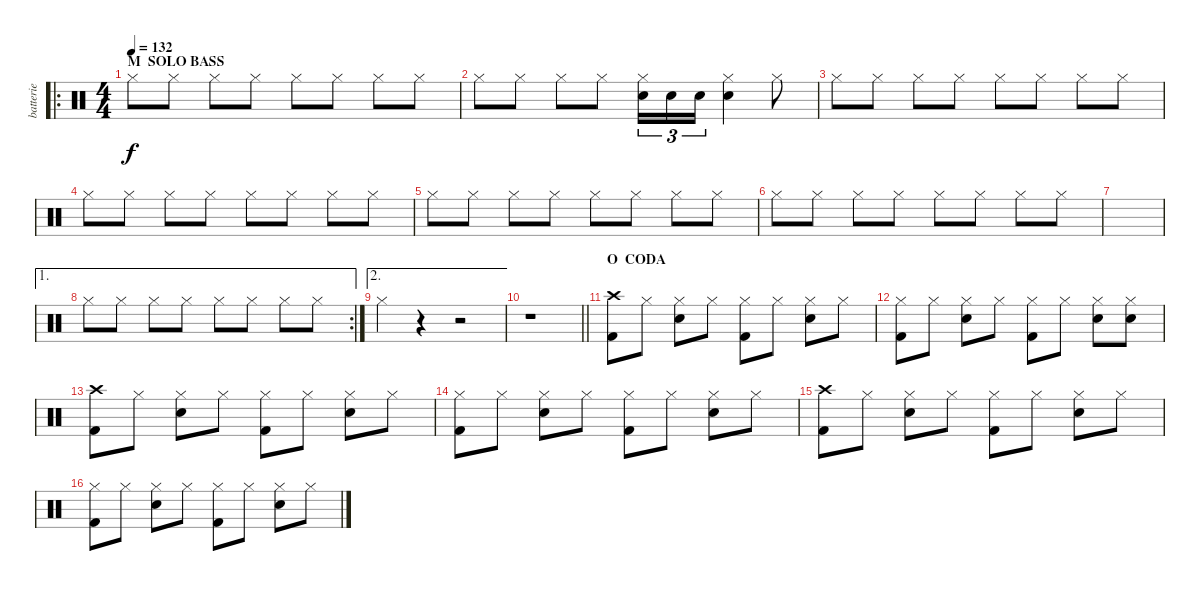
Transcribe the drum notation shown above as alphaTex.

\track ("batterie" "batterie") {instrument percussion}
\staff {score}
\articulation defaults
\ro
\ts (4 4)
\section ("" "M  SOLO BASS")
\tempo 132
\clef neutral
\ks c "Hi-Hat (closed)".8{dy f} "Hi-Hat (closed)".8 "Hi-Hat (closed)".8 "Hi-Hat (closed)".8 "Hi-Hat (closed)".8 "Hi-Hat (closed)".8 "Hi-Hat (closed)".8 "Hi-Hat (closed)".8
|
"Hi-Hat (closed)".8 "Hi-Hat (closed)".8 "Hi-Hat (closed)".8 "Hi-Hat (closed)".8 ("Hi-Hat (closed)" "Electric Snare (hit)").16{tu (3 2)} "Electric Snare (hit)".16{tu (3 2)} "Electric Snare (hit)".16{tu (3 2)} ("Hi-Hat (closed)" "Electric Snare (hit)").4 "Hi-Hat (closed)".8 |
"Hi-Hat (closed)".8 "Hi-Hat (closed)".8 "Hi-Hat (closed)".8 "Hi-Hat (closed)".8 "Hi-Hat (closed)".8 "Hi-Hat (closed)".8 "Hi-Hat (closed)".8 "Hi-Hat (closed)".8 |
"Hi-Hat (closed)".8 "Hi-Hat (closed)".8 "Hi-Hat (closed)".8 "Hi-Hat (closed)".8 "Hi-Hat (closed)".8 "Hi-Hat (closed)".8 "Hi-Hat (closed)".8 "Hi-Hat (closed)".8 |
"Hi-Hat (closed)".8 "Hi-Hat (closed)".8 "Hi-Hat (closed)".8 "Hi-Hat (closed)".8 "Hi-Hat (closed)".8 "Hi-Hat (closed)".8 "Hi-Hat (closed)".8 "Hi-Hat (closed)".8 |
"Hi-Hat (closed)".8 "Hi-Hat (closed)".8 "Hi-Hat (closed)".8 "Hi-Hat (closed)".8 "Hi-Hat (closed)".8 "Hi-Hat (closed)".8 "Hi-Hat (closed)".8 "Hi-Hat (closed)".8 |
|
\ae 1
\rc 2 "Hi-Hat (closed)".8 "Hi-Hat (closed)".8 "Hi-Hat (closed)".8 "Hi-Hat (closed)".8 "Hi-Hat (closed)".8 "Hi-Hat (closed)".8 "Hi-Hat (closed)".8 "Hi-Hat (closed)".8
|
\ae 2 "Hi-Hat (closed)".4
r.4 r.2 |
\barLineRight lightlight
r.1 |
\section ("" "O  CODA")
("Crash high (hit)" "Kick (hit) 2").8 "Hi-Hat (closed)".8 ("Hi-Hat (closed)" "Electric Snare (hit)").8 "Hi-Hat (closed)".8 ("Hi-Hat (closed)" "Kick (hit) 2").8 "Hi-Hat (closed)".8 ("Hi-Hat (closed)" "Electric Snare (hit)").8 "Hi-Hat (closed)".8 |
("Hi-Hat (closed)" "Kick (hit) 2").8 "Hi-Hat (closed)".8 ("Hi-Hat (closed)" "Electric Snare (hit)").8 "Hi-Hat (closed)".8 ("Hi-Hat (closed)" "Kick (hit) 2").8 "Hi-Hat (closed)".8 ("Hi-Hat (closed)" "Electric Snare (hit)").8 ("Hi-Hat (closed)" "Electric Snare (hit)").8 |
("Crash high (hit)" "Kick (hit) 2").8 "Hi-Hat (closed)".8 ("Hi-Hat (closed)" "Electric Snare (hit)").8 "Hi-Hat (closed)".8 ("Hi-Hat (closed)" "Kick (hit) 2").8 "Hi-Hat (closed)".8 ("Hi-Hat (closed)" "Electric Snare (hit)").8 "Hi-Hat (closed)".8 |
("Hi-Hat (closed)" "Kick (hit) 2").8 "Hi-Hat (closed)".8 ("Hi-Hat (closed)" "Electric Snare (hit)").8 "Hi-Hat (closed)".8 ("Hi-Hat (closed)" "Kick (hit) 2").8 "Hi-Hat (closed)".8 ("Hi-Hat (closed)" "Electric Snare (hit)").8 "Hi-Hat (closed)".8 |
("Crash high (hit)" "Kick (hit) 2").8 "Hi-Hat (closed)".8 ("Hi-Hat (closed)" "Electric Snare (hit)").8 "Hi-Hat (closed)".8 ("Hi-Hat (closed)" "Kick (hit) 2").8 "Hi-Hat (closed)".8 ("Hi-Hat (closed)" "Electric Snare (hit)").8 "Hi-Hat (closed)".8 |
("Hi-Hat (closed)" "Kick (hit) 2").8 "Hi-Hat (closed)".8 ("Hi-Hat (closed)" "Electric Snare (hit)").8 "Hi-Hat (closed)".8 ("Hi-Hat (closed)" "Kick (hit) 2").8 "Hi-Hat (closed)".8 ("Hi-Hat (closed)" "Electric Snare (hit)").8 "Hi-Hat (closed)".8
